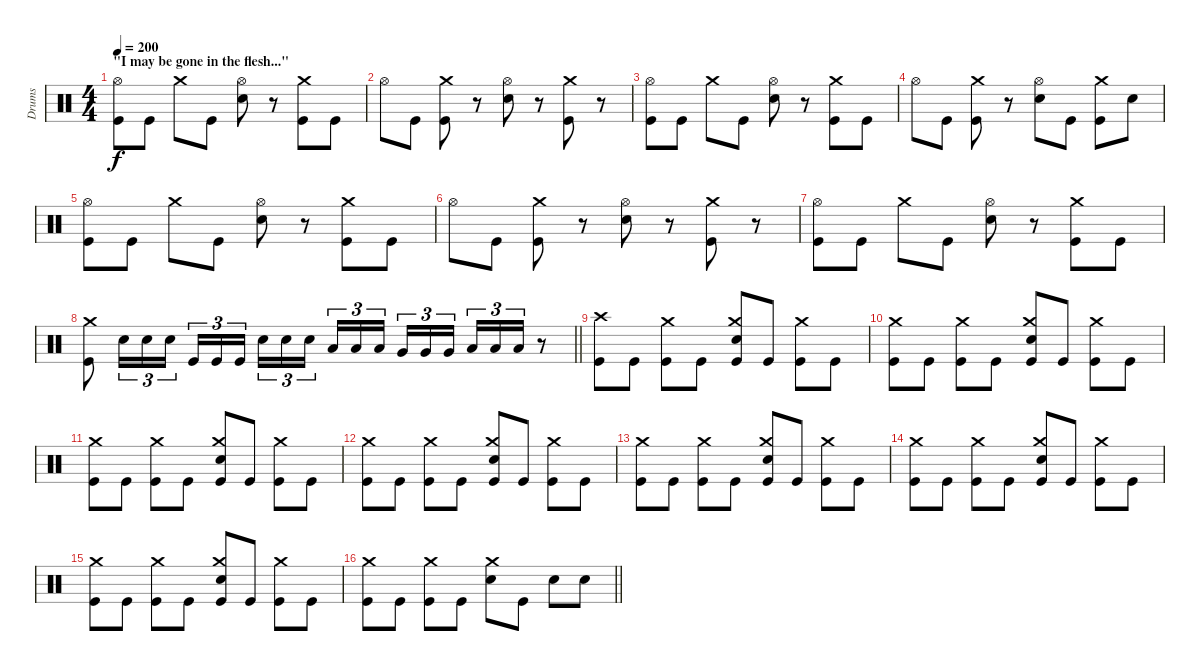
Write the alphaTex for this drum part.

\track ("Drums" "Drums") {instrument percussion}
\staff {score}
\articulation defaults
\ts (4 4)
\section ("" "\"I may be gone in the flesh...\"")
\tempo 200
\clef neutral
\ks c
("Hi-Hat (open)" "Kick (hit)").8{dy f} "Kick (hit)".8 "Crash medium (hit)".8 "Kick (hit)".8 ("Hi-Hat (open)" "Snare (hit) 2").8 r.8 ("Crash medium (hit)" "Kick (hit)").8 "Kick (hit)".8 |
"Hi-Hat (open)".8 "Kick (hit)".8 ("Crash medium (hit)" "Kick (hit)").8 r.8 ("Hi-Hat (open)" "Snare (hit) 2").8 r.8 ("Crash medium (hit)" "Kick (hit)").8 r.8 |
("Hi-Hat (open)" "Kick (hit)").8 "Kick (hit)".8 "Crash medium (hit)".8 "Kick (hit)".8 ("Hi-Hat (open)" "Snare (hit) 2").8 r.8 ("Crash medium (hit)" "Kick (hit)").8 "Kick (hit)".8 |
"Hi-Hat (open)".8 "Kick (hit)".8 ("Crash medium (hit)" "Kick (hit)").8 r.8 ("Hi-Hat (open)" "Snare (hit) 2").8 "Kick (hit)".8 ("Crash medium (hit)" "Kick (hit)").8 "Snare (hit) 2".8 |
("Hi-Hat (open)" "Kick (hit)").8 "Kick (hit)".8 "Crash medium (hit)".8 "Kick (hit)".8 ("Hi-Hat (open)" "Snare (hit) 2").8 r.8 ("Crash medium (hit)" "Kick (hit)").8 "Kick (hit)".8 |
"Hi-Hat (open)".8 "Kick (hit)".8 ("Crash medium (hit)" "Kick (hit)").8 r.8 ("Hi-Hat (open)" "Snare (hit) 2").8 r.8 ("Crash medium (hit)" "Kick (hit)").8 r.8 |
("Hi-Hat (open)" "Kick (hit)").8 "Kick (hit)".8 "Crash medium (hit)".8 "Kick (hit)".8 ("Hi-Hat (open)" "Snare (hit) 2").8 r.8 ("Crash medium (hit)" "Kick (hit)").8 "Kick (hit)".8 |
\barLineRight lightlight
("Crash medium (hit)" "Kick (hit)").8 "Snare (hit) 2".16{tu (3 2)} "Snare (hit) 2".16{tu (3 2)} "Snare (hit) 2".16{tu (3 2)} "Kick (hit)".16{tu (3 2)} "Kick (hit)".16{tu (3 2)} "Kick (hit)".16{tu (3 2)} "Snare (hit) 2".16{tu (3 2)} "Snare (hit) 2".16{tu (3 2)} "Snare (hit) 2".16{tu (3 2)} "Low Tom (hit)".16{tu (3 2)} "Low Tom (hit)".16{tu (3 2)} "Low Tom (hit)".16{tu (3 2)} "Very Low Tom (hit)".16{tu (3 2)} "Very Low Tom (hit)".16{tu (3 2)} "Very Low Tom (hit)".16{tu (3 2)} "Low Floor Tom (hit)".16{tu (3 2)} "Low Floor Tom (hit)".16{tu (3 2)} "Low Floor Tom (hit)".16{tu (3 2)} r.8 |
("Crash high (hit)" "Kick (hit)").8 "Kick (hit)".8 ("Crash medium (hit)" "Kick (hit)").8 "Kick (hit)".8 ("Crash medium (hit)" "Snare (hit) 2" "Kick (hit)").8 "Kick (hit)".8 ("Crash medium (hit)" "Kick (hit)").8 "Kick (hit)".8 |
("Crash medium (hit)" "Kick (hit)").8 "Kick (hit)".8 ("Crash medium (hit)" "Kick (hit)").8 "Kick (hit)".8 ("Crash medium (hit)" "Snare (hit) 2" "Kick (hit)").8 "Kick (hit)".8 ("Crash medium (hit)" "Kick (hit)").8 "Kick (hit)".8 |
("Crash medium (hit)" "Kick (hit)").8 "Kick (hit)".8 ("Crash medium (hit)" "Kick (hit)").8 "Kick (hit)".8 ("Crash medium (hit)" "Snare (hit) 2" "Kick (hit)").8 "Kick (hit)".8 ("Crash medium (hit)" "Kick (hit)").8 "Kick (hit)".8 |
("Crash medium (hit)" "Kick (hit)").8 "Kick (hit)".8 ("Crash medium (hit)" "Kick (hit)").8 "Kick (hit)".8 ("Crash medium (hit)" "Snare (hit) 2" "Kick (hit)").8 "Kick (hit)".8 ("Crash medium (hit)" "Kick (hit)").8 "Kick (hit)".8 |
("Crash medium (hit)" "Kick (hit)").8 "Kick (hit)".8 ("Crash medium (hit)" "Kick (hit)").8 "Kick (hit)".8 ("Crash medium (hit)" "Snare (hit) 2" "Kick (hit)").8 "Kick (hit)".8 ("Crash medium (hit)" "Kick (hit)").8 "Kick (hit)".8 |
("Crash medium (hit)" "Kick (hit)").8 "Kick (hit)".8 ("Crash medium (hit)" "Kick (hit)").8 "Kick (hit)".8 ("Crash medium (hit)" "Snare (hit) 2" "Kick (hit)").8 "Kick (hit)".8 ("Crash medium (hit)" "Kick (hit)").8 "Kick (hit)".8 |
("Crash medium (hit)" "Kick (hit)").8 "Kick (hit)".8 ("Crash medium (hit)" "Kick (hit)").8 "Kick (hit)".8 ("Crash medium (hit)" "Snare (hit) 2" "Kick (hit)").8 "Kick (hit)".8 ("Crash medium (hit)" "Kick (hit)").8 "Kick (hit)".8 |
\barLineRight lightlight
("Crash medium (hit)" "Kick (hit)").8 "Kick (hit)".8 ("Crash medium (hit)" "Kick (hit)").8 "Kick (hit)".8 ("Crash medium (hit)" "Snare (hit) 2").8 "Kick (hit)".8 "Snare (hit) 2".8 "Snare (hit) 2".8
